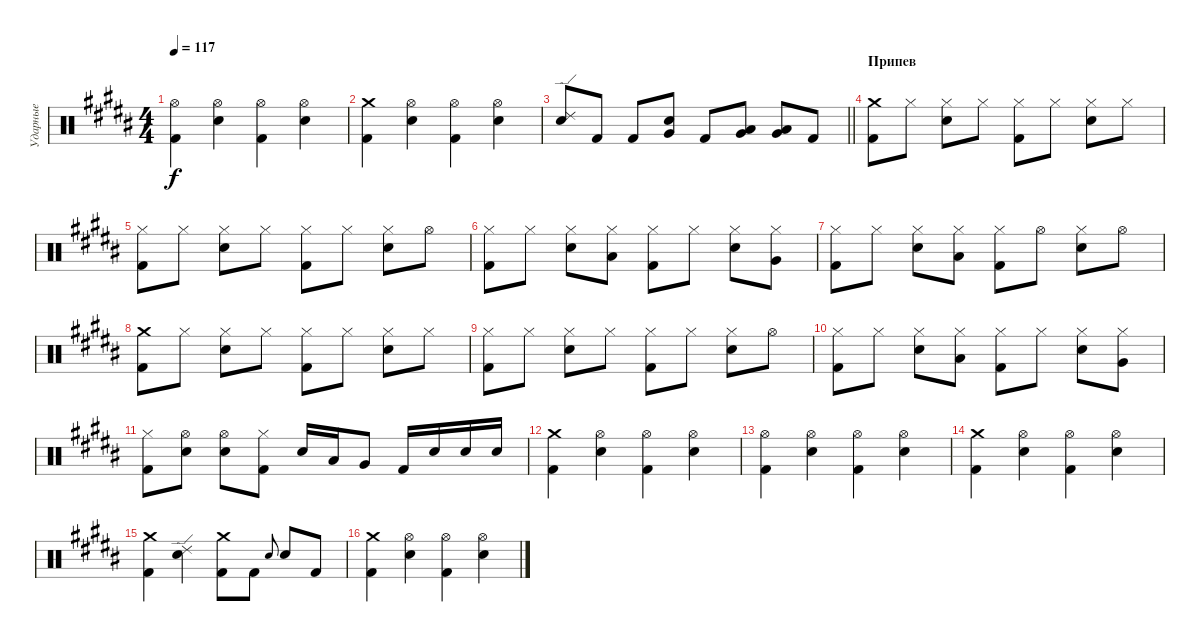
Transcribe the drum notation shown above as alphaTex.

\track ("Ударные" "Ударные") {instrument percussion}
\staff {score}
\articulation defaults
\ts (4 4)
\tempo 117
\clef neutral
\ks g#minor
("Hi-Hat (open)" "Kick (hit) 2").4{dy f} ("Hi-Hat (open)" "Electric Snare (hit)").4 ("Hi-Hat (open)" "Kick (hit) 2").4 ("Hi-Hat (open)" "Electric Snare (hit)").4 |
("Crash medium (hit)" "Kick (hit) 2").4 ("Hi-Hat (open)" "Electric Snare (hit)").4 ("Hi-Hat (open)" "Kick (hit) 2").4 ("Hi-Hat (open)" "Electric Snare (hit)").4 |
\barLineRight lightlight
("Ride (edge) 2" "Electric Snare (hit)").8 "Kick (hit) 2".8 "Kick (hit) 2".8 ("Very Low Tom (hit)" "Electric Snare (hit)").8 "Kick (hit) 2".8 ("Very Low Tom (hit)" "Low Tom (hit)").8 ("Very Low Tom (hit)" "Low Tom (hit)").8 "Kick (hit) 2".8 |
\section ("" "Припев")
("Crash medium (hit)" "Kick (hit) 2").8 "Hi-Hat (closed)".8 ("Hi-Hat (closed)" "Electric Snare (hit)").8 "Hi-Hat (closed)".8 ("Hi-Hat (closed)" "Kick (hit) 2").8 "Hi-Hat (closed)".8 ("Hi-Hat (closed)" "Electric Snare (hit)").8 "Hi-Hat (closed)".8 |
("Hi-Hat (closed)" "Kick (hit) 2").8 "Hi-Hat (closed)".8 ("Hi-Hat (closed)" "Electric Snare (hit)").8 "Hi-Hat (closed)".8 ("Hi-Hat (closed)" "Kick (hit) 2").8 "Hi-Hat (closed)".8 ("Hi-Hat (closed)" "Electric Snare (hit)").8 "Hi-Hat (open)".8 |
("Hi-Hat (closed)" "Kick (hit) 2").8 "Hi-Hat (closed)".8 ("Hi-Hat (closed)" "Electric Snare (hit)").8 ("Hi-Hat (closed)" "Low Tom (hit)").8 ("Hi-Hat (closed)" "Kick (hit) 2").8 "Hi-Hat (closed)".8 ("Hi-Hat (closed)" "Electric Snare (hit)").8 ("Hi-Hat (closed)" "Very Low Tom (hit)").8 |
("Hi-Hat (closed)" "Kick (hit) 2").8 "Hi-Hat (closed)".8 ("Hi-Hat (closed)" "Electric Snare (hit)").8 ("Hi-Hat (closed)" "Low Tom (hit)").8 ("Hi-Hat (closed)" "Kick (hit) 2").8 "Hi-Hat (open)".8 ("Hi-Hat (closed)" "Electric Snare (hit)").8 "Hi-Hat (open)".8 |
("Crash medium (hit)" "Kick (hit) 2").8 "Hi-Hat (closed)".8 ("Hi-Hat (closed)" "Electric Snare (hit)").8 "Hi-Hat (closed)".8 ("Hi-Hat (closed)" "Kick (hit) 2").8 "Hi-Hat (closed)".8 ("Hi-Hat (closed)" "Electric Snare (hit)").8 "Hi-Hat (closed)".8 |
("Hi-Hat (closed)" "Kick (hit) 2").8 "Hi-Hat (closed)".8 ("Hi-Hat (closed)" "Electric Snare (hit)").8 "Hi-Hat (closed)".8 ("Hi-Hat (closed)" "Kick (hit) 2").8 "Hi-Hat (closed)".8 ("Hi-Hat (closed)" "Electric Snare (hit)").8 "Hi-Hat (open)".8 |
("Hi-Hat (closed)" "Kick (hit) 2").8 "Hi-Hat (closed)".8 ("Hi-Hat (closed)" "Electric Snare (hit)").8 ("Hi-Hat (closed)" "Low Tom (hit)").8 ("Hi-Hat (closed)" "Kick (hit) 2").8 "Hi-Hat (closed)".8 ("Hi-Hat (closed)" "Electric Snare (hit)").8 ("Hi-Hat (closed)" "Very Low Tom (hit)").8 |
("Hi-Hat (closed)" "Kick (hit) 2").8 ("Hi-Hat (open)" "Electric Snare (hit)").8 ("Hi-Hat (open)" "Electric Snare (hit)").8 ("Hi-Hat (closed)" "Kick (hit) 2").8 "Electric Snare (hit)".16 "Low Tom (hit)".16 "Very Low Tom (hit)".8 "Kick (hit) 2".16 "Electric Snare (hit)".16 "Electric Snare (hit)".16 "Electric Snare (hit)".16 |
("Crash medium (hit)" "Kick (hit) 2").4 ("Hi-Hat (open)" "Electric Snare (hit)").4 ("Hi-Hat (open)" "Kick (hit) 2").4 ("Hi-Hat (open)" "Electric Snare (hit)").4 |
("Hi-Hat (open)" "Kick (hit) 2").4 ("Hi-Hat (open)" "Electric Snare (hit)").4 ("Hi-Hat (open)" "Kick (hit) 2").4 ("Hi-Hat (open)" "Electric Snare (hit)").4 |
("Crash medium (hit)" "Kick (hit) 2").4 ("Hi-Hat (open)" "Electric Snare (hit)").4 ("Hi-Hat (open)" "Kick (hit) 2").4 ("Hi-Hat (open)" "Electric Snare (hit)").4 |
("Crash medium (hit)" "Kick (hit) 2").4 ("Ride (edge) 2" "Electric Snare (hit)").4 ("Crash medium (hit)" "Kick (hit) 2").8 "Kick (hit) 2".8 "Electric Snare (hit)".8{gr onbeat} "Electric Snare (hit)".8 "Kick (hit) 2".8 |
("Crash medium (hit)" "Kick (hit) 2").4 ("Hi-Hat (open)" "Electric Snare (hit)").4 ("Hi-Hat (open)" "Kick (hit) 2").4 ("Hi-Hat (open)" "Electric Snare (hit)").4
